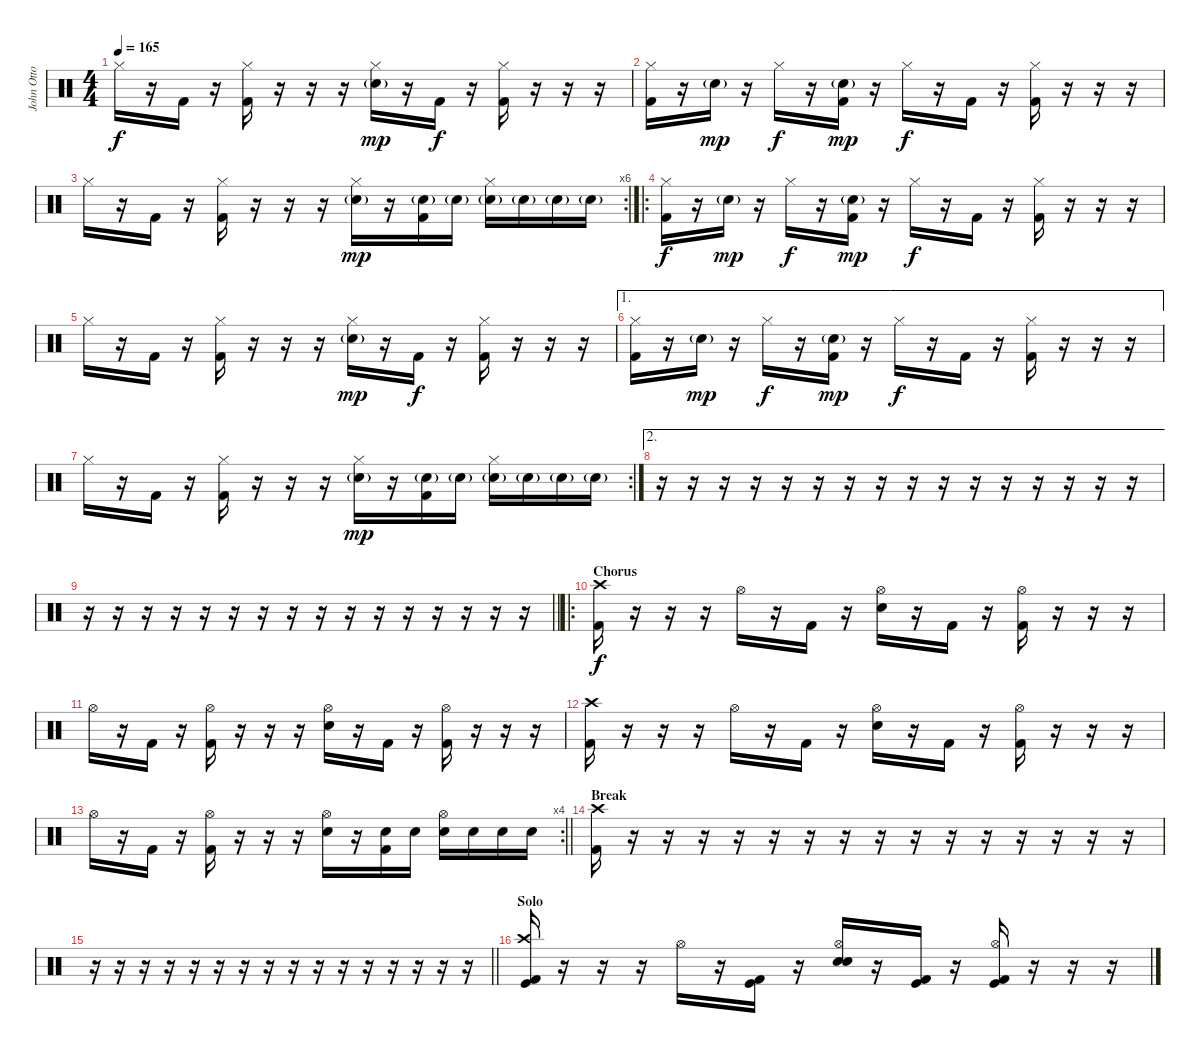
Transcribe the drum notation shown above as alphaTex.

\track ("John Otto" "John Otto") {instrument percussion}
\staff {score}
\articulation defaults
\ts (4 4)
\tempo 165
\clef neutral
\ks c "Hi-Hat (closed)".16{dy f}
r.16 "Kick (hit) 2".16 r.16 ("Hi-Hat (closed)" "Kick (hit) 2").16 r.16 r.16 r.16 ("Hi-Hat (closed)" "Snare (hit) 2"{g}).16{dy mp} r.16 "Kick (hit) 2".16{dy f} r.16 ("Hi-Hat (closed)" "Kick (hit) 2").16 r.16 r.16 r.16 |
("Hi-Hat (closed)" "Kick (hit) 2").16 r.16 "Snare (hit) 2"{g}.16{dy mp} r.16 "Hi-Hat (closed)".16{dy f} r.16 ("Snare (hit) 2"{g} "Kick (hit) 2").16{dy mp} r.16 "Hi-Hat (closed)".16{dy f} r.16 "Kick (hit) 2".16 r.16 ("Hi-Hat (closed)" "Kick (hit) 2").16 r.16 r.16 r.16 |
\rc 6 "Hi-Hat (closed)".16
r.16 "Kick (hit) 2".16 r.16 ("Hi-Hat (closed)" "Kick (hit) 2").16 r.16 r.16 r.16 ("Hi-Hat (closed)" "Snare (hit) 2"{g}).16{dy mp} r.16 ("Snare (hit) 2"{g} "Kick (hit) 2").16 "Snare (hit) 2"{g}.16 ("Hi-Hat (closed)" "Snare (hit) 2"{g}).16 "Snare (hit) 2"{g}.16 "Snare (hit) 2"{g}.16 "Snare (hit) 2"{g}.16 |
\ro
("Hi-Hat (closed)" "Kick (hit) 2").16{dy f} r.16 "Snare (hit) 2"{g}.16{dy mp} r.16 "Hi-Hat (closed)".16{dy f} r.16 ("Snare (hit) 2"{g} "Kick (hit) 2").16{dy mp} r.16 "Hi-Hat (closed)".16{dy f} r.16 "Kick (hit) 2".16 r.16 ("Hi-Hat (closed)" "Kick (hit) 2").16 r.16 r.16 r.16 |
"Hi-Hat (closed)".16 r.16 "Kick (hit) 2".16 r.16 ("Hi-Hat (closed)" "Kick (hit) 2").16 r.16 r.16 r.16 ("Hi-Hat (closed)" "Snare (hit) 2"{g}).16{dy mp} r.16 "Kick (hit) 2".16{dy f} r.16 ("Hi-Hat (closed)" "Kick (hit) 2").16 r.16 r.16 r.16 |
\ae 1
("Hi-Hat (closed)" "Kick (hit) 2").16 r.16 "Snare (hit) 2"{g}.16{dy mp} r.16 "Hi-Hat (closed)".16{dy f} r.16 ("Snare (hit) 2"{g} "Kick (hit) 2").16{dy mp} r.16 "Hi-Hat (closed)".16{dy f} r.16 "Kick (hit) 2".16 r.16 ("Hi-Hat (closed)" "Kick (hit) 2").16 r.16 r.16 r.16 |
\rc 2 "Hi-Hat (closed)".16
r.16 "Kick (hit) 2".16 r.16 ("Hi-Hat (closed)" "Kick (hit) 2").16 r.16 r.16 r.16 ("Hi-Hat (closed)" "Snare (hit) 2"{g}).16{dy mp} r.16 ("Snare (hit) 2"{g} "Kick (hit) 2").16 "Snare (hit) 2"{g}.16 ("Hi-Hat (closed)" "Snare (hit) 2"{g}).16 "Snare (hit) 2"{g}.16 "Snare (hit) 2"{g}.16 "Snare (hit) 2"{g}.16 |
\ae 2
r.16 r.16 r.16 r.16 r.16 r.16 r.16 r.16 r.16 r.16 r.16 r.16 r.16 r.16 r.16 r.16 |
\barLineRight lightlight
r.16 r.16 r.16 r.16 r.16 r.16 r.16 r.16 r.16 r.16 r.16 r.16 r.16 r.16 r.16 r.16 |
\ro
\section ("" "Chorus")
("Crash high (hit)" "Kick (hit) 2").16{dy f} r.16 r.16 r.16 "Hi-Hat (open)".16 r.16 "Kick (hit) 2".16 r.16 ("Hi-Hat (open)" "Snare (hit) 2").16 r.16 "Kick (hit) 2".16 r.16 ("Hi-Hat (open)" "Kick (hit) 2").16 r.16 r.16 r.16 |
"Hi-Hat (open)".16 r.16 "Kick (hit) 2".16 r.16 ("Hi-Hat (open)" "Kick (hit) 2").16 r.16 r.16 r.16 ("Hi-Hat (open)" "Snare (hit) 2").16 r.16 "Kick (hit) 2".16 r.16 ("Hi-Hat (open)" "Kick (hit) 2").16 r.16 r.16 r.16 |
("Crash high (hit)" "Kick (hit) 2").16 r.16 r.16 r.16 "Hi-Hat (open)".16 r.16 "Kick (hit) 2".16 r.16 ("Hi-Hat (open)" "Snare (hit) 2").16 r.16 "Kick (hit) 2".16 r.16 ("Hi-Hat (open)" "Kick (hit) 2").16 r.16 r.16 r.16 |
\rc 4
\barLineRight lightlight "Hi-Hat (open)".16
r.16 "Kick (hit) 2".16 r.16 ("Hi-Hat (open)" "Kick (hit) 2").16 r.16 r.16 r.16 ("Hi-Hat (open)" "Snare (hit) 2").16 r.16 ("Snare (hit) 2" "Kick (hit) 2").16 "Snare (hit) 2".16 ("Hi-Hat (open)" "Snare (hit) 2").16 "Snare (hit) 2".16 "Snare (hit) 2".16 "Snare (hit) 2".16 |
\section ("" "Break")
("Crash high (hit)" "Kick (hit) 2").16 r.16 r.16 r.16 r.16 r.16 r.16 r.16 r.16 r.16 r.16 r.16 r.16 r.16 r.16 r.16 |
\barLineRight lightlight
r.16 r.16 r.16 r.16 r.16 r.16 r.16 r.16 r.16 r.16 r.16 r.16 r.16 r.16 r.16 r.16 |
\section ("" "Solo")
("Crash high (hit)" "Kick (hit)" "Kick (hit) 2").16 r.16 r.16 r.16 "Hi-Hat (open)".16 r.16 ("Kick (hit)" "Kick (hit) 2").16 r.16 ("Hi-Hat (open)" "Electric Snare (hit)" "Snare (hit) 2").16 r.16 ("Kick (hit)" "Kick (hit) 2").16 r.16 ("Hi-Hat (open)" "Kick (hit)" "Kick (hit) 2").16 r.16 r.16 r.16
